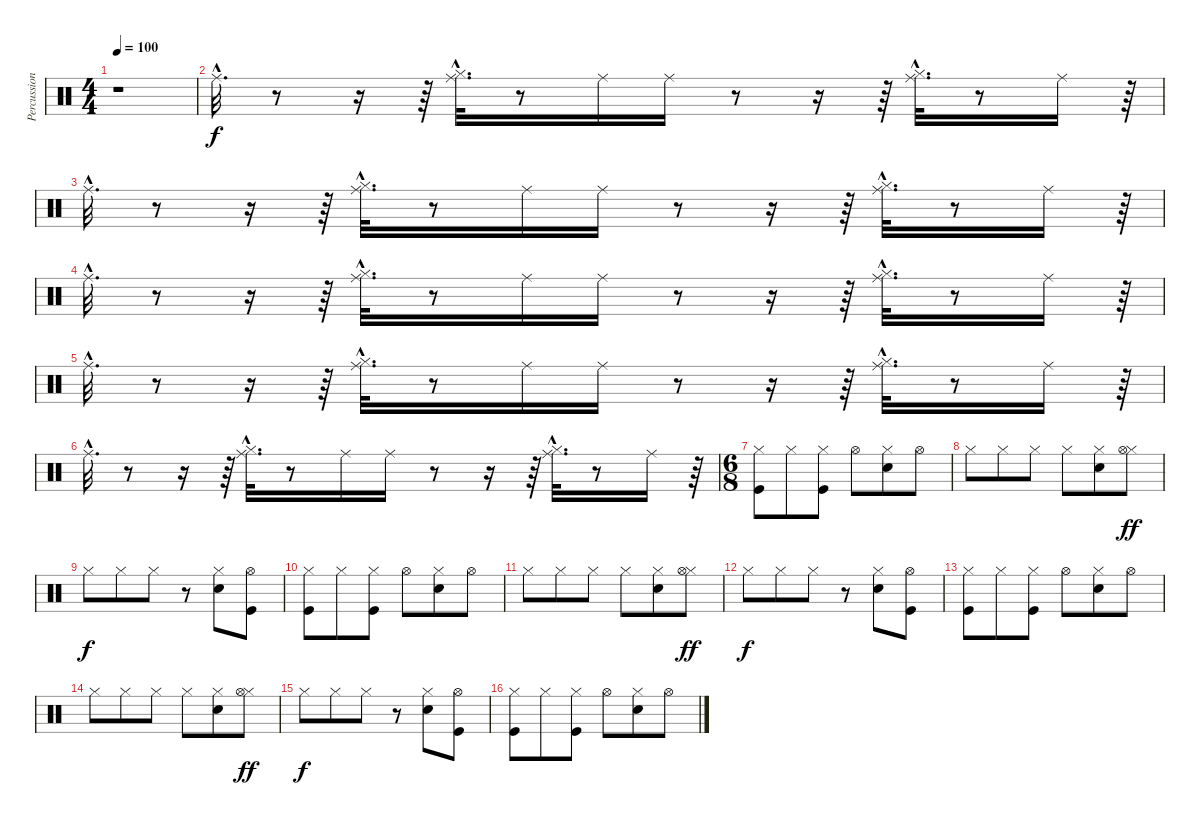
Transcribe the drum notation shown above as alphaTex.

\track ("Percussions" "Percussion") {instrument percussion}
\staff {score}
\articulation defaults
\ts (4 4)
\tempo 100
\clef neutral
\ks c
r.1{dy f} |
"Ride (middle)"{hac}.32{d} r.8 r.16 r.64 ("Hi-Hat (closed)"{hac} "Ride (middle)"{hac}).32{d} r.8 "Ride (middle)".16 "Ride (middle)".16 r.8 r.16 r.64 ("Hi-Hat (closed)"{hac} "Ride (middle)"{hac}).32{d} r.8 "Ride (middle)".16 r.64 |
"Ride (middle)"{hac}.32{d} r.8 r.16 r.64 ("Hi-Hat (closed)"{hac} "Ride (middle)"{hac}).32{d} r.8 "Ride (middle)".16 "Ride (middle)".16 r.8 r.16 r.64 ("Hi-Hat (closed)"{hac} "Ride (middle)"{hac}).32{d} r.8 "Ride (middle)".16 r.64 |
"Ride (middle)"{hac}.32{d} r.8 r.16 r.64 ("Hi-Hat (closed)"{hac} "Ride (middle)"{hac}).32{d} r.8 "Ride (middle)".16 "Ride (middle)".16 r.8 r.16 r.64 ("Hi-Hat (closed)"{hac} "Ride (middle)"{hac}).32{d} r.8 "Ride (middle)".16 r.64 |
"Ride (middle)"{hac}.32{d} r.8 r.16 r.64 ("Hi-Hat (closed)"{hac} "Ride (middle)"{hac}).32{d} r.8 "Ride (middle)".16 "Ride (middle)".16 r.8 r.16 r.64 ("Hi-Hat (closed)"{hac} "Ride (middle)"{hac}).32{d} r.8 "Ride (middle)".16 r.64 |
"Ride (middle)"{hac}.32{d} r.8 r.16 r.64 ("Hi-Hat (closed)"{hac} "Ride (middle)"{hac}).32{d} r.8 "Ride (middle)".16 "Ride (middle)".16 r.8 r.16 r.64 ("Hi-Hat (closed)"{hac} "Ride (middle)"{hac}).32{d} r.8 "Ride (middle)".16 r.64 |
\ts (6 8)
("Kick (hit)" "Hi-Hat (closed)").8 "Hi-Hat (closed)".8 ("Kick (hit)" "Hi-Hat (closed)").8 "Hi-Hat (open)".8 ("Snare (hit) 2" "Hi-Hat (closed)").8 "Hi-Hat (open)".8 |
"Hi-Hat (closed)".8 "Hi-Hat (closed)".8 "Hi-Hat (closed)".8 "Hi-Hat (closed)".8 ("Snare (hit) 2" "Hi-Hat (closed)").8 ("Hi-Hat (closed)" "Hi-Hat (open)").8{dy ff} |
"Hi-Hat (closed)".8{dy f} "Hi-Hat (closed)".8 "Hi-Hat (closed)".8 r.8 ("Snare (hit) 2" "Hi-Hat (closed)").8 ("Kick (hit)" "Hi-Hat (open)").8 |
("Kick (hit)" "Hi-Hat (closed)").8 "Hi-Hat (closed)".8 ("Kick (hit)" "Hi-Hat (closed)").8 "Hi-Hat (open)".8 ("Snare (hit) 2" "Hi-Hat (closed)").8 "Hi-Hat (open)".8 |
"Hi-Hat (closed)".8 "Hi-Hat (closed)".8 "Hi-Hat (closed)".8 "Hi-Hat (closed)".8 ("Snare (hit) 2" "Hi-Hat (closed)").8 ("Hi-Hat (closed)" "Hi-Hat (open)").8{dy ff} |
"Hi-Hat (closed)".8{dy f} "Hi-Hat (closed)".8 "Hi-Hat (closed)".8 r.8 ("Snare (hit) 2" "Hi-Hat (closed)").8 ("Kick (hit)" "Hi-Hat (open)").8 |
("Kick (hit)" "Hi-Hat (closed)").8 "Hi-Hat (closed)".8 ("Kick (hit)" "Hi-Hat (closed)").8 "Hi-Hat (open)".8 ("Snare (hit) 2" "Hi-Hat (closed)").8 "Hi-Hat (open)".8 |
"Hi-Hat (closed)".8 "Hi-Hat (closed)".8 "Hi-Hat (closed)".8 "Hi-Hat (closed)".8 ("Snare (hit) 2" "Hi-Hat (closed)").8 ("Hi-Hat (closed)" "Hi-Hat (open)").8{dy ff} |
"Hi-Hat (closed)".8{dy f} "Hi-Hat (closed)".8 "Hi-Hat (closed)".8 r.8 ("Snare (hit) 2" "Hi-Hat (closed)").8 ("Kick (hit)" "Hi-Hat (open)").8 |
("Kick (hit)" "Hi-Hat (closed)").8 "Hi-Hat (closed)".8 ("Kick (hit)" "Hi-Hat (closed)").8 "Hi-Hat (open)".8 ("Snare (hit) 2" "Hi-Hat (closed)").8 "Hi-Hat (open)".8
